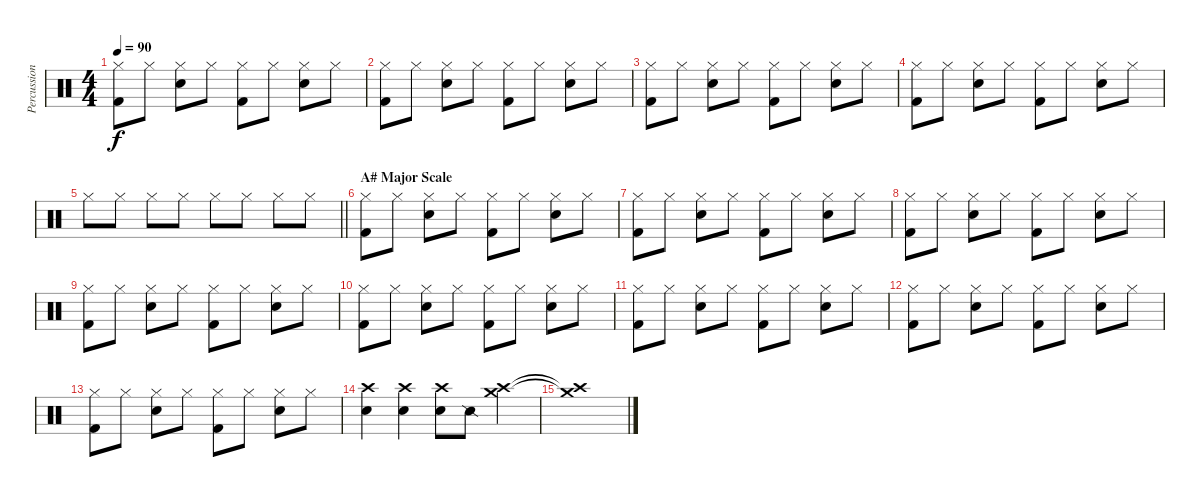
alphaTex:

\track ("Percussion" "Percussion") {instrument percussion}
\staff {score}
\articulation defaults
\ts (4 4)
\tempo 90
\clef neutral
\ks c
("Kick (hit) 2" "Hi-Hat (closed)").8{dy f} "Hi-Hat (closed)".8 ("Snare (hit) 2" "Hi-Hat (closed)").8 "Hi-Hat (closed)".8 ("Kick (hit) 2" "Hi-Hat (closed)").8 "Hi-Hat (closed)".8 ("Snare (hit) 2" "Hi-Hat (closed)").8 "Hi-Hat (closed)".8 |
("Kick (hit) 2" "Hi-Hat (closed)").8 "Hi-Hat (closed)".8 ("Snare (hit) 2" "Hi-Hat (closed)").8 "Hi-Hat (closed)".8 ("Kick (hit) 2" "Hi-Hat (closed)").8 "Hi-Hat (closed)".8 ("Snare (hit) 2" "Hi-Hat (closed)").8 "Hi-Hat (closed)".8 |
("Kick (hit) 2" "Hi-Hat (closed)").8 "Hi-Hat (closed)".8 ("Snare (hit) 2" "Hi-Hat (closed)").8 "Hi-Hat (closed)".8 ("Kick (hit) 2" "Hi-Hat (closed)").8 "Hi-Hat (closed)".8 ("Snare (hit) 2" "Hi-Hat (closed)").8 "Hi-Hat (closed)".8 |
("Kick (hit) 2" "Hi-Hat (closed)").8 "Hi-Hat (closed)".8 ("Snare (hit) 2" "Hi-Hat (closed)").8 "Hi-Hat (closed)".8 ("Kick (hit) 2" "Hi-Hat (closed)").8 "Hi-Hat (closed)".8 ("Snare (hit) 2" "Hi-Hat (closed)").8 "Hi-Hat (closed)".8 |
\barLineRight lightlight "Hi-Hat (closed)".8 "Hi-Hat (closed)".8 "Hi-Hat (closed)".8 "Hi-Hat (closed)".8 "Hi-Hat (closed)".8 "Hi-Hat (closed)".8 "Hi-Hat (closed)".8 "Hi-Hat (closed)".8
|
\section ("" "A# Major Scale")
("Kick (hit) 2" "Hi-Hat (closed)").8 "Hi-Hat (closed)".8 ("Snare (hit) 2" "Hi-Hat (closed)").8 "Hi-Hat (closed)".8 ("Kick (hit) 2" "Hi-Hat (closed)").8 "Hi-Hat (closed)".8 ("Snare (hit) 2" "Hi-Hat (closed)").8 "Hi-Hat (closed)".8 |
("Kick (hit) 2" "Hi-Hat (closed)").8 "Hi-Hat (closed)".8 ("Snare (hit) 2" "Hi-Hat (closed)").8 "Hi-Hat (closed)".8 ("Kick (hit) 2" "Hi-Hat (closed)").8 "Hi-Hat (closed)".8 ("Snare (hit) 2" "Hi-Hat (closed)").8 "Hi-Hat (closed)".8 |
("Kick (hit) 2" "Hi-Hat (closed)").8 "Hi-Hat (closed)".8 ("Snare (hit) 2" "Hi-Hat (closed)").8 "Hi-Hat (closed)".8 ("Kick (hit) 2" "Hi-Hat (closed)").8 "Hi-Hat (closed)".8 ("Snare (hit) 2" "Hi-Hat (closed)").8 "Hi-Hat (closed)".8 |
("Kick (hit) 2" "Hi-Hat (closed)").8 "Hi-Hat (closed)".8 ("Snare (hit) 2" "Hi-Hat (closed)").8 "Hi-Hat (closed)".8 ("Kick (hit) 2" "Hi-Hat (closed)").8 "Hi-Hat (closed)".8 ("Snare (hit) 2" "Hi-Hat (closed)").8 "Hi-Hat (closed)".8 |
("Kick (hit) 2" "Hi-Hat (closed)").8 "Hi-Hat (closed)".8 ("Snare (hit) 2" "Hi-Hat (closed)").8 "Hi-Hat (closed)".8 ("Kick (hit) 2" "Hi-Hat (closed)").8 "Hi-Hat (closed)".8 ("Snare (hit) 2" "Hi-Hat (closed)").8 "Hi-Hat (closed)".8 |
("Kick (hit) 2" "Hi-Hat (closed)").8 "Hi-Hat (closed)".8 ("Snare (hit) 2" "Hi-Hat (closed)").8 "Hi-Hat (closed)".8 ("Kick (hit) 2" "Hi-Hat (closed)").8 "Hi-Hat (closed)".8 ("Snare (hit) 2" "Hi-Hat (closed)").8 "Hi-Hat (closed)".8 |
("Kick (hit) 2" "Hi-Hat (closed)").8 "Hi-Hat (closed)".8 ("Snare (hit) 2" "Hi-Hat (closed)").8 "Hi-Hat (closed)".8 ("Kick (hit) 2" "Hi-Hat (closed)").8 "Hi-Hat (closed)".8 ("Snare (hit) 2" "Hi-Hat (closed)").8 "Hi-Hat (closed)".8 |
("Kick (hit) 2" "Hi-Hat (closed)").8 "Hi-Hat (closed)".8 ("Snare (hit) 2" "Hi-Hat (closed)").8 "Hi-Hat (closed)".8 ("Kick (hit) 2" "Hi-Hat (closed)").8 "Hi-Hat (closed)".8 ("Snare (hit) 2" "Hi-Hat (closed)").8 "Hi-Hat (closed)".8 |
("Crash high (hit)" "Snare (hit) 2").4 ("Crash high (hit)" "Snare (hit) 2").4 ("Crash high (hit)" "Snare (hit) 2").8 "Snare (side stick) 2".8 ("Crash high (hit)" "Crash medium (hit)").4 |
("Crash high (hit)"{t} "Crash medium (hit)"{t}).1
